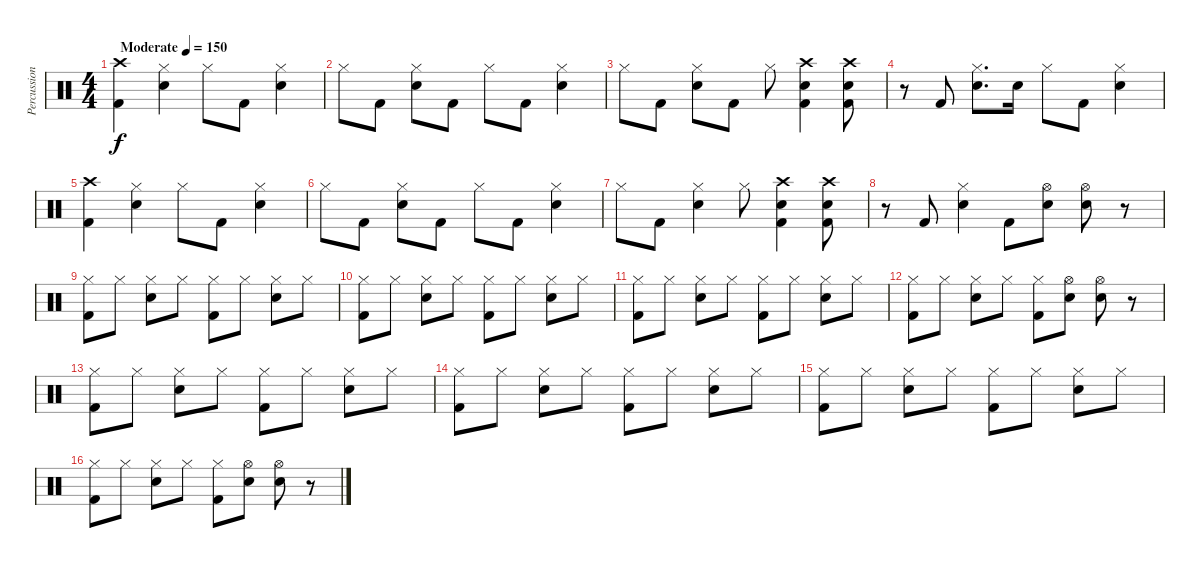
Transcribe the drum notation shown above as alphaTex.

\track ("Percussion" "Percussion") {instrument percussion}
\staff {score}
\articulation defaults
\ts (4 4)
\tempo (150 "Moderate")
\clef neutral
\ks c
("Crash high (hit)" "Kick (hit) 2").4{dy f} ("Hi-Hat (closed)" "Snare (hit) 2").4 "Hi-Hat (closed)".8 "Kick (hit) 2".8 ("Hi-Hat (closed)" "Snare (hit) 2").4 |
"Hi-Hat (closed)".8 "Kick (hit) 2".8 ("Hi-Hat (closed)" "Snare (hit) 2").8 "Kick (hit) 2".8 "Hi-Hat (closed)".8 "Kick (hit) 2".8 ("Hi-Hat (closed)" "Snare (hit) 2").4 |
"Hi-Hat (closed)".8 "Kick (hit) 2".8 ("Hi-Hat (closed)" "Snare (hit) 2").8 "Kick (hit) 2".8 "Hi-Hat (closed)".8 ("Crash high (hit)" "Snare (hit) 2" "Kick (hit) 2").4 ("Crash high (hit)" "Snare (hit) 2" "Kick (hit) 2").8 |
r.8 "Kick (hit) 2".8 ("Hi-Hat (closed)" "Snare (hit) 2").8{d} "Snare (hit) 2".16 "Hi-Hat (closed)".8 "Kick (hit) 2".8 ("Hi-Hat (closed)" "Snare (hit) 2").4 |
("Crash high (hit)" "Kick (hit) 2").4 ("Hi-Hat (closed)" "Snare (hit) 2").4 "Hi-Hat (closed)".8 "Kick (hit) 2".8 ("Hi-Hat (closed)" "Snare (hit) 2").4 |
"Hi-Hat (closed)".8 "Kick (hit) 2".8 ("Hi-Hat (closed)" "Snare (hit) 2").8 "Kick (hit) 2".8 "Hi-Hat (closed)".8 "Kick (hit) 2".8 ("Hi-Hat (closed)" "Snare (hit) 2").4 |
"Hi-Hat (closed)".8 "Kick (hit) 2".8 ("Hi-Hat (closed)" "Snare (hit) 2").4 "Hi-Hat (closed)".8 ("Crash high (hit)" "Snare (hit) 2" "Kick (hit) 2").4 ("Crash high (hit)" "Snare (hit) 2" "Kick (hit) 2").8 |
r.8 "Kick (hit) 2".8 ("Hi-Hat (closed)" "Snare (hit) 2").4 "Kick (hit) 2".8 ("Hi-Hat (open)" "Snare (hit) 2").8 ("Hi-Hat (open)" "Snare (hit) 2").8 r.8 |
("Hi-Hat (closed)" "Kick (hit) 2").8 "Hi-Hat (closed)".8 ("Hi-Hat (closed)" "Snare (hit) 2").8 "Hi-Hat (closed)".8 ("Hi-Hat (closed)" "Kick (hit) 2").8 "Hi-Hat (closed)".8 ("Hi-Hat (closed)" "Snare (hit) 2").8 "Hi-Hat (closed)".8 |
("Hi-Hat (closed)" "Kick (hit) 2").8 "Hi-Hat (closed)".8 ("Hi-Hat (closed)" "Snare (hit) 2").8 "Hi-Hat (closed)".8 ("Hi-Hat (closed)" "Kick (hit) 2").8 "Hi-Hat (closed)".8 ("Hi-Hat (closed)" "Snare (hit) 2").8 "Hi-Hat (closed)".8 |
("Hi-Hat (closed)" "Kick (hit) 2").8 "Hi-Hat (closed)".8 ("Hi-Hat (closed)" "Snare (hit) 2").8 "Hi-Hat (closed)".8 ("Hi-Hat (closed)" "Kick (hit) 2").8 "Hi-Hat (closed)".8 ("Hi-Hat (closed)" "Snare (hit) 2").8 "Hi-Hat (closed)".8 |
("Hi-Hat (closed)" "Kick (hit) 2").8 "Hi-Hat (closed)".8 ("Hi-Hat (closed)" "Snare (hit) 2").8 "Hi-Hat (closed)".8 ("Hi-Hat (closed)" "Kick (hit) 2").8 ("Hi-Hat (open)" "Snare (hit) 2").8 ("Hi-Hat (open)" "Snare (hit) 2").8 r.8 |
("Hi-Hat (closed)" "Kick (hit) 2").8 "Hi-Hat (closed)".8 ("Hi-Hat (closed)" "Snare (hit) 2").8 "Hi-Hat (closed)".8 ("Hi-Hat (closed)" "Kick (hit) 2").8 "Hi-Hat (closed)".8 ("Hi-Hat (closed)" "Snare (hit) 2").8 "Hi-Hat (closed)".8 |
("Hi-Hat (closed)" "Kick (hit) 2").8 "Hi-Hat (closed)".8 ("Hi-Hat (closed)" "Snare (hit) 2").8 "Hi-Hat (closed)".8 ("Hi-Hat (closed)" "Kick (hit) 2").8 "Hi-Hat (closed)".8 ("Hi-Hat (closed)" "Snare (hit) 2").8 "Hi-Hat (closed)".8 |
("Hi-Hat (closed)" "Kick (hit) 2").8 "Hi-Hat (closed)".8 ("Hi-Hat (closed)" "Snare (hit) 2").8 "Hi-Hat (closed)".8 ("Hi-Hat (closed)" "Kick (hit) 2").8 "Hi-Hat (closed)".8 ("Hi-Hat (closed)" "Snare (hit) 2").8 "Hi-Hat (closed)".8 |
("Hi-Hat (closed)" "Kick (hit) 2").8 "Hi-Hat (closed)".8 ("Hi-Hat (closed)" "Snare (hit) 2").8 "Hi-Hat (closed)".8 ("Hi-Hat (closed)" "Kick (hit) 2").8 ("Hi-Hat (open)" "Snare (hit) 2").8 ("Hi-Hat (open)" "Snare (hit) 2").8 r.8
